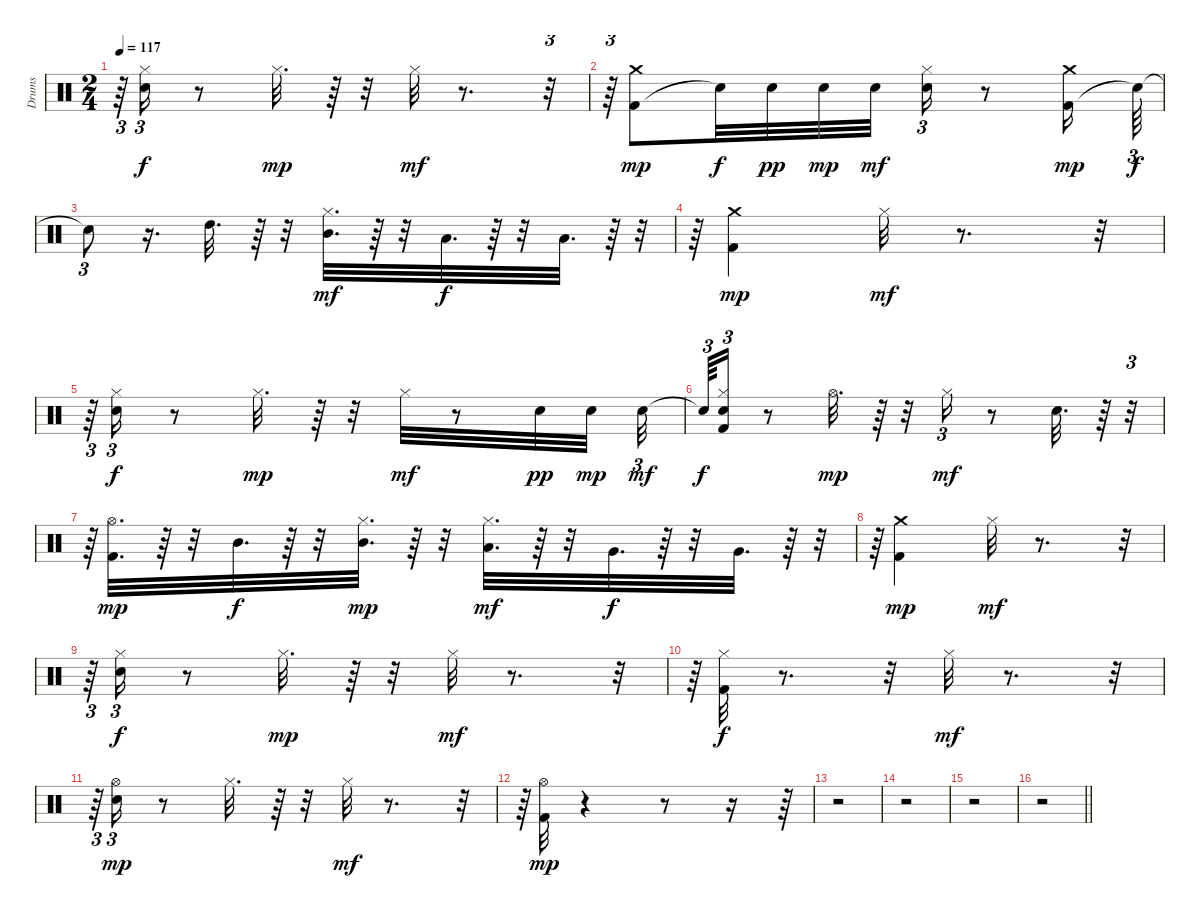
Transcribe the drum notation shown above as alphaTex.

\track ("Drums" "Drums") {instrument percussion}
\staff {score}
\articulation defaults
\ts (2 4)
\tempo 117
\clef neutral
\ks c
r.64{tu (3 2) dy mf} ("Electric Snare (hit)" "Hi-Hat (closed)").16{tu (3 2) dy f} r.8 "Hi-Hat (closed)".32{d dy mp} r.64 r.32 "Hi-Hat (closed)".32{dy mf} r.8{d} r.32{tu (3 2)} |
r.64{tu (3 2)} ("Kick (hit) 2" "Crash medium (hit)").8{dy mp} "Snare (hit)"{t}.32{dy f} "Electric Snare (hit)".32{dy pp} "Electric Snare (hit)".32{dy mp} "Electric Snare (hit)".32{dy mf} ("Electric Snare (hit)" "Hi-Hat (closed)").16{tu (3 2)} r.8 ("Kick (hit) 2" "Crash medium (hit)").16{dy mp} "Snare (hit)"{t}.64{tu (3 2) dy f} |
"Snare (hit)"{t}.8{tu (3 2)} r.16{d} "High Tom (hit)".32{d} r.64 r.32 ("Hi-Hat (closed)" "Mid Tom (hit)").32{d dy mf} r.64 r.32 "Low Tom (hit)".32{d dy f} r.64 r.32 "Low Tom (hit)".32{d} r.64 r.32{tu (3 2)} |
r.64{tu (3 2)} ("Kick (hit) 2" "Crash medium (hit)").4{dy mp} "Hi-Hat (closed)".32{dy mf} r.8{d} r.32{tu (3 2)} |
r.64{tu (3 2)} ("Electric Snare (hit)" "Hi-Hat (closed)").16{tu (3 2) dy f} r.8 "Hi-Hat (closed)".32{d dy mp} r.64 r.32 "Hi-Hat (closed)".32{dy mf} r.8 "Electric Snare (hit)".32{dy pp} "Electric Snare (hit)".32{dy mp beam splitsecondary} "Electric Snare (hit)".32{tu (3 2) dy mf} |
"Snare (hit)"{t}.64{tu (3 2) dy f} ("Kick (hit) 2" "Electric Snare (hit)" "Hi-Hat (closed)").16{tu (3 2)} r.8 "Hi-Hat (open)".32{d dy mp} r.64 r.32 "Hi-Hat (closed)".16{tu (3 2) dy mf} r.8 "Electric Snare (hit)".32{d} r.64 r.32{tu (3 2)} |
r.64{tu (3 2)} ("Kick (hit) 2" "Hi-Hat (open)").32{d dy mp} r.64 r.32 "Mid Tom (hit)".32{d dy f} r.64 r.32 ("Hi-Hat (closed)" "Mid Tom (hit)").32{d dy mp} r.64 r.32 ("Hi-Hat (closed)" "Low Tom (hit)").32{d dy mf} r.64 r.32 "Very Low Tom (hit)".32{d dy f} r.64 r.32 "Very Low Tom (hit)".32{d} r.64 r.32{tu (3 2)} |
r.64{tu (3 2)} ("Kick (hit) 2" "Crash medium (hit)").4{dy mp} "Hi-Hat (closed)".32{dy mf} r.8{d} r.32{tu (3 2)} |
r.64{tu (3 2)} ("Electric Snare (hit)" "Hi-Hat (closed)").16{tu (3 2) dy f} r.8 "Hi-Hat (closed)".32{d dy mp} r.64 r.32 "Hi-Hat (closed)".32{dy mf} r.8{d} r.32{tu (3 2)} |
r.64{tu (3 2)} ("Kick (hit) 2" "Hi-Hat (closed)").32{dy f} r.8{d} r.32 "Hi-Hat (closed)".32{dy mf} r.8{d} r.32{tu (3 2)} |
r.64{tu (3 2)} ("Electric Snare (hit)" "Hi-Hat (open)").16{tu (3 2) dy mp} r.8 "Hi-Hat (closed)".32{d} r.64 r.32 "Hi-Hat (closed)".32{dy mf} r.8{d} r.32{tu (3 2)} |
r.64{tu (3 2)} ("Kick (hit) 2" "Hi-Hat (open)").32{dy mp} r.4 r.8 r.16 r.64 |
r.2 |
r.2 |
r.2 |
\barLineRight lightlight
r.2
